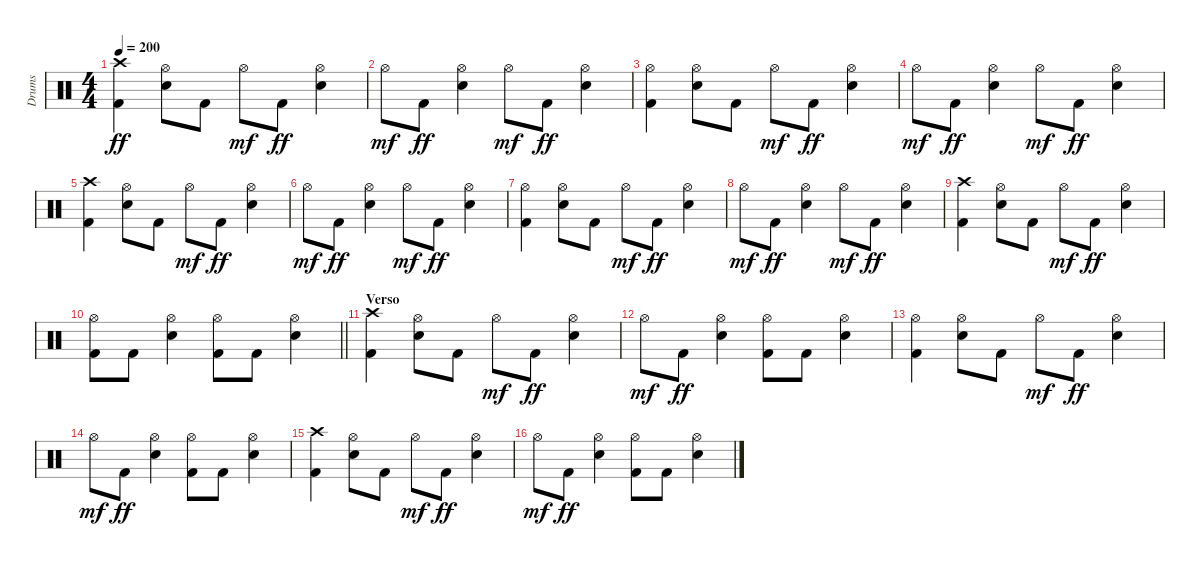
\track ("Drums" "Drums") {instrument percussion}
\staff {score}
\articulation defaults
\ts (4 4)
\tempo 200
\clef neutral
\ks c
("Crash high (hit)" "Kick (hit) 2").4{dy ff} ("Hi-Hat (open)" "Electric Snare (hit)").8 "Kick (hit) 2".8 "Hi-Hat (open)".8{dy mf} "Kick (hit) 2".8{dy ff} ("Hi-Hat (open)" "Electric Snare (hit)").4 |
"Hi-Hat (open)".8{dy mf} "Kick (hit) 2".8{dy ff} ("Hi-Hat (open)" "Electric Snare (hit)").4 "Hi-Hat (open)".8{dy mf} "Kick (hit) 2".8{dy ff} ("Hi-Hat (open)" "Electric Snare (hit)").4 |
("Hi-Hat (open)" "Kick (hit) 2").4 ("Hi-Hat (open)" "Electric Snare (hit)").8 "Kick (hit) 2".8 "Hi-Hat (open)".8{dy mf} "Kick (hit) 2".8{dy ff} ("Hi-Hat (open)" "Electric Snare (hit)").4 |
"Hi-Hat (open)".8{dy mf} "Kick (hit) 2".8{dy ff} ("Hi-Hat (open)" "Electric Snare (hit)").4 "Hi-Hat (open)".8{dy mf} "Kick (hit) 2".8{dy ff} ("Hi-Hat (open)" "Electric Snare (hit)").4 |
("Crash high (hit)" "Kick (hit) 2").4 ("Hi-Hat (open)" "Electric Snare (hit)").8 "Kick (hit) 2".8 "Hi-Hat (open)".8{dy mf} "Kick (hit) 2".8{dy ff} ("Hi-Hat (open)" "Electric Snare (hit)").4 |
"Hi-Hat (open)".8{dy mf} "Kick (hit) 2".8{dy ff} ("Hi-Hat (open)" "Electric Snare (hit)").4 "Hi-Hat (open)".8{dy mf} "Kick (hit) 2".8{dy ff} ("Hi-Hat (open)" "Electric Snare (hit)").4 |
("Hi-Hat (open)" "Kick (hit) 2").4 ("Hi-Hat (open)" "Electric Snare (hit)").8 "Kick (hit) 2".8 "Hi-Hat (open)".8{dy mf} "Kick (hit) 2".8{dy ff} ("Hi-Hat (open)" "Electric Snare (hit)").4 |
"Hi-Hat (open)".8{dy mf} "Kick (hit) 2".8{dy ff} ("Hi-Hat (open)" "Electric Snare (hit)").4 "Hi-Hat (open)".8{dy mf} "Kick (hit) 2".8{dy ff} ("Hi-Hat (open)" "Electric Snare (hit)").4 |
("Crash high (hit)" "Kick (hit) 2").4 ("Hi-Hat (open)" "Electric Snare (hit)").8 "Kick (hit) 2".8 "Hi-Hat (open)".8{dy mf} "Kick (hit) 2".8{dy ff} ("Hi-Hat (open)" "Electric Snare (hit)").4 |
\barLineRight lightlight
("Hi-Hat (open)" "Kick (hit) 2").8 "Kick (hit) 2".8 ("Hi-Hat (open)" "Electric Snare (hit)").4 ("Hi-Hat (open)" "Kick (hit) 2").8 "Kick (hit) 2".8 ("Hi-Hat (open)" "Electric Snare (hit)").4 |
\section ("" "Verso")
("Crash high (hit)" "Kick (hit) 2").4 ("Hi-Hat (open)" "Electric Snare (hit)").8 "Kick (hit) 2".8 "Hi-Hat (open)".8{dy mf} "Kick (hit) 2".8{dy ff} ("Hi-Hat (open)" "Electric Snare (hit)").4 |
"Hi-Hat (open)".8{dy mf} "Kick (hit) 2".8{dy ff} ("Hi-Hat (open)" "Electric Snare (hit)").4 ("Hi-Hat (open)" "Kick (hit) 2").8 "Kick (hit) 2".8 ("Hi-Hat (open)" "Electric Snare (hit)").4 |
("Hi-Hat (open)" "Kick (hit) 2").4 ("Hi-Hat (open)" "Electric Snare (hit)").8 "Kick (hit) 2".8 "Hi-Hat (open)".8{dy mf} "Kick (hit) 2".8{dy ff} ("Hi-Hat (open)" "Electric Snare (hit)").4 |
"Hi-Hat (open)".8{dy mf} "Kick (hit) 2".8{dy ff} ("Hi-Hat (open)" "Electric Snare (hit)").4 ("Hi-Hat (open)" "Kick (hit) 2").8 "Kick (hit) 2".8 ("Hi-Hat (open)" "Electric Snare (hit)").4 |
("Crash high (hit)" "Kick (hit) 2").4 ("Hi-Hat (open)" "Electric Snare (hit)").8 "Kick (hit) 2".8 "Hi-Hat (open)".8{dy mf} "Kick (hit) 2".8{dy ff} ("Hi-Hat (open)" "Electric Snare (hit)").4 |
"Hi-Hat (open)".8{dy mf} "Kick (hit) 2".8{dy ff} ("Hi-Hat (open)" "Electric Snare (hit)").4 ("Hi-Hat (open)" "Kick (hit) 2").8 "Kick (hit) 2".8 ("Hi-Hat (open)" "Electric Snare (hit)").4
